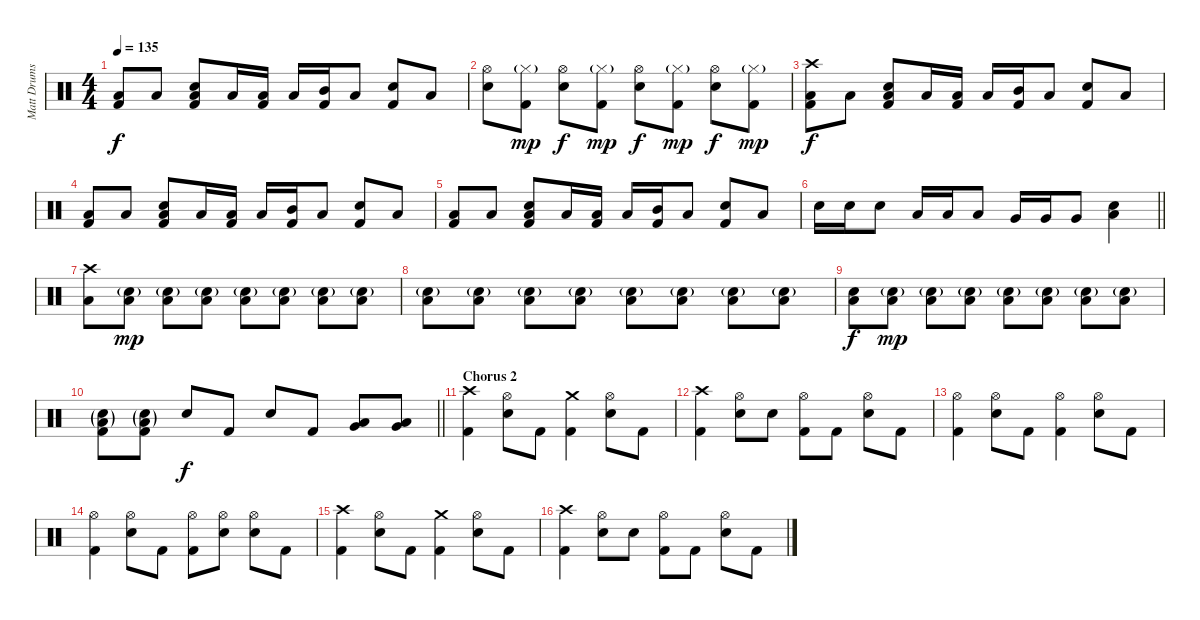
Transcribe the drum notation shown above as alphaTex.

\track ("Matt Drums" "Matt Drums") {instrument percussion}
\staff {score}
\articulation defaults
\ts (4 4)
\tempo 135
\clef neutral
\ks c
("Low Floor Tom (hit)" "Kick (hit) 2").8{dy f} "Low Floor Tom (hit)".8 ("Snare (hit) 2" "Low Floor Tom (hit)" "Kick (hit) 2").8 "Low Floor Tom (hit)".16 ("Low Tom (hit)" "Kick (hit) 2").16 "Low Floor Tom (hit)".16 ("Mid Tom (hit)" "Kick (hit) 2").16 "Low Floor Tom (hit)".8 ("Snare (hit) 2" "Kick (hit) 2").8 "Low Floor Tom (hit)".8 |
("Hi-Hat (open)" "Snare (hit) 2").8 ("Hi-Hat (closed)"{g} "Kick (hit) 2").8{dy mp} ("Hi-Hat (open)" "Snare (hit) 2").8{dy f} ("Hi-Hat (closed)"{g} "Kick (hit) 2").8{dy mp} ("Hi-Hat (open)" "Snare (hit) 2").8{dy f} ("Hi-Hat (closed)"{g} "Kick (hit) 2").8{dy mp} ("Hi-Hat (open)" "Snare (hit) 2").8{dy f} ("Hi-Hat (closed)"{g} "Kick (hit) 2").8{dy mp} |
("Crash high (hit)" "Low Floor Tom (hit)" "Kick (hit) 2").8{dy f} "Low Floor Tom (hit)".8 ("Snare (hit) 2" "Low Floor Tom (hit)" "Kick (hit) 2").8 "Low Floor Tom (hit)".16 ("Low Tom (hit)" "Kick (hit) 2").16 "Low Floor Tom (hit)".16 ("Mid Tom (hit)" "Kick (hit) 2").16 "Low Floor Tom (hit)".8 ("Snare (hit) 2" "Kick (hit) 2").8 "Low Floor Tom (hit)".8 |
("Low Floor Tom (hit)" "Kick (hit) 2").8 "Low Floor Tom (hit)".8 ("Snare (hit) 2" "Low Floor Tom (hit)" "Kick (hit) 2").8 "Low Floor Tom (hit)".16 ("Low Tom (hit)" "Kick (hit) 2").16 "Low Floor Tom (hit)".16 ("Mid Tom (hit)" "Kick (hit) 2").16 "Low Floor Tom (hit)".8 ("Snare (hit) 2" "Kick (hit) 2").8 "Low Floor Tom (hit)".8 |
("Low Floor Tom (hit)" "Kick (hit) 2").8 "Low Floor Tom (hit)".8 ("Snare (hit) 2" "Low Floor Tom (hit)" "Kick (hit) 2").8 "Low Floor Tom (hit)".16 ("Low Tom (hit)" "Kick (hit) 2").16 "Low Floor Tom (hit)".16 ("Mid Tom (hit)" "Kick (hit) 2").16 "Low Floor Tom (hit)".8 ("Snare (hit) 2" "Kick (hit) 2").8 "Low Floor Tom (hit)".8 |
\barLineRight lightlight "Snare (hit) 2".16 "Snare (hit) 2".16 "Snare (hit) 2".8 "Low Tom (hit)".16 "Low Tom (hit)".16 "Low Tom (hit)".8 "Very Low Tom (hit)".16 "Very Low Tom (hit)".16 "Very Low Tom (hit)".8
("Snare (hit) 2" "Low Floor Tom (hit)").4 |
("Crash high (hit)" "Low Floor Tom (hit)").8 ("Snare (hit) 2"{g} "Low Floor Tom (hit)").8{dy mp} ("Snare (hit) 2"{g} "Low Floor Tom (hit)").8 ("Snare (hit) 2"{g} "Low Floor Tom (hit)").8 ("Snare (hit) 2"{g} "Low Floor Tom (hit)").8 ("Snare (hit) 2"{g} "Low Floor Tom (hit)").8 ("Snare (hit) 2"{g} "Low Floor Tom (hit)").8 ("Snare (hit) 2"{g} "Low Floor Tom (hit)").8 |
("Snare (hit) 2"{g} "Low Floor Tom (hit)").8 ("Snare (hit) 2"{g} "Low Floor Tom (hit)").8 ("Snare (hit) 2"{g} "Low Floor Tom (hit)").8 ("Snare (hit) 2"{g} "Low Floor Tom (hit)").8 ("Snare (hit) 2"{g} "Low Floor Tom (hit)").8 ("Snare (hit) 2"{g} "Low Floor Tom (hit)").8 ("Snare (hit) 2"{g} "Low Floor Tom (hit)").8 ("Snare (hit) 2"{g} "Low Floor Tom (hit)").8 |
("Snare (hit) 2" "Low Floor Tom (hit)").8{dy f} ("Snare (hit) 2"{g} "Low Floor Tom (hit)").8{dy mp} ("Snare (hit) 2"{g} "Low Floor Tom (hit)").8 ("Snare (hit) 2"{g} "Low Floor Tom (hit)").8 ("Snare (hit) 2"{g} "Low Floor Tom (hit)").8 ("Snare (hit) 2"{g} "Low Floor Tom (hit)").8 ("Snare (hit) 2"{g} "Low Floor Tom (hit)").8 ("Snare (hit) 2"{g} "Low Floor Tom (hit)").8 |
\barLineRight lightlight
("Snare (hit) 2"{g} "Low Floor Tom (hit)"{g} "Kick (hit) 2").8 ("Snare (hit) 2"{g} "Low Floor Tom (hit)"{g} "Kick (hit) 2").8 "Snare (hit) 2".8{dy f} "Kick (hit) 2".8 "Snare (hit) 2".8 "Kick (hit) 2".8 ("Very Low Tom (hit)" "Low Floor Tom (hit)").8 ("Very Low Tom (hit)" "Low Floor Tom (hit)").8 |
\section ("" "Chorus 2")
("Crash high (hit)" "Kick (hit) 2").4 ("Hi-Hat (open)" "Snare (hit) 2").8 "Kick (hit) 2".8 ("Crash medium (hit)" "Kick (hit) 2").4 ("Hi-Hat (open)" "Snare (hit) 2").8 "Kick (hit) 2".8 |
("Crash high (hit)" "Kick (hit) 2").4 ("Hi-Hat (open)" "Snare (hit) 2").8 "Snare (hit) 2".8 ("Hi-Hat (open)" "Kick (hit) 2").8 "Kick (hit) 2".8 ("Hi-Hat (open)" "Snare (hit) 2").8 "Kick (hit) 2".8 |
("Hi-Hat (open)" "Kick (hit) 2").4 ("Hi-Hat (open)" "Snare (hit) 2").8 "Kick (hit) 2".8 ("Hi-Hat (open)" "Kick (hit) 2").4 ("Hi-Hat (open)" "Snare (hit) 2").8 "Kick (hit) 2".8 |
("Hi-Hat (open)" "Kick (hit) 2").4 ("Hi-Hat (open)" "Snare (hit) 2").8 "Kick (hit) 2".8 ("Hi-Hat (open)" "Kick (hit) 2").8 ("Hi-Hat (open)" "Snare (hit) 2").8 ("Hi-Hat (open)" "Snare (hit) 2").8 "Kick (hit) 2".8 |
("Crash high (hit)" "Kick (hit) 2").4 ("Hi-Hat (open)" "Snare (hit) 2").8 "Kick (hit) 2".8 ("Crash medium (hit)" "Kick (hit) 2").4 ("Hi-Hat (open)" "Snare (hit) 2").8 "Kick (hit) 2".8 |
("Crash high (hit)" "Kick (hit) 2").4 ("Hi-Hat (open)" "Snare (hit) 2").8 "Snare (hit) 2".8 ("Hi-Hat (open)" "Kick (hit) 2").8 "Kick (hit) 2".8 ("Hi-Hat (open)" "Snare (hit) 2").8 "Kick (hit) 2".8
